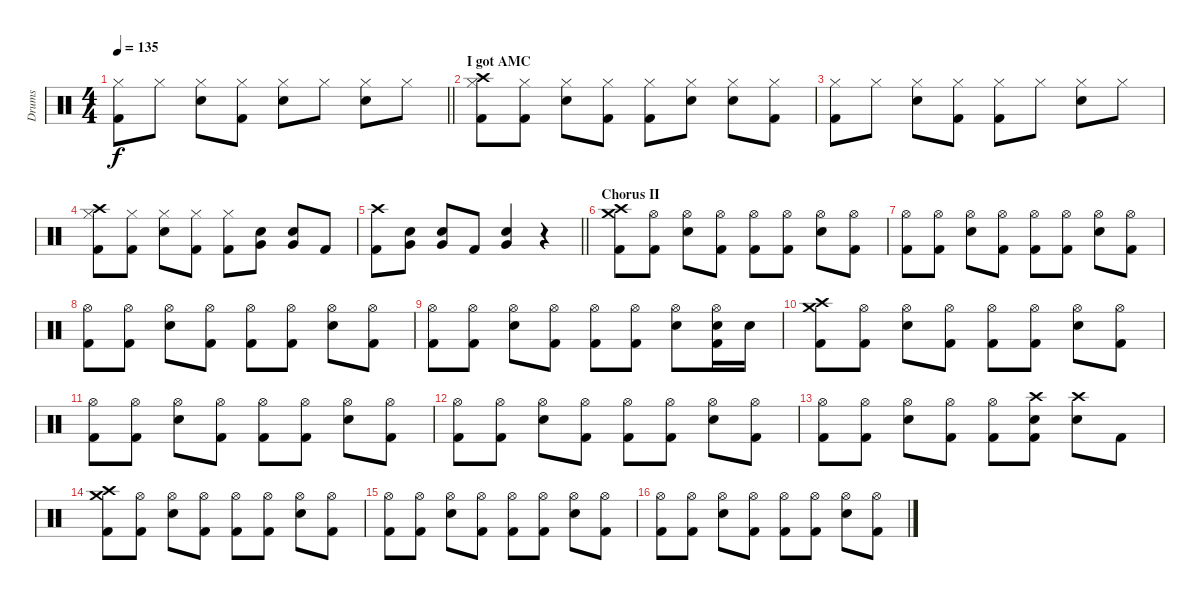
\track ("Drums" "Drums") {instrument percussion}
\staff {score}
\articulation defaults
\ts (4 4)
\tempo 135
\clef neutral
\barLineRight lightlight
\ks c
("Hi-Hat (closed)" "Kick (hit) 2").8{dy f volume 13} "Hi-Hat (closed)".8 ("Hi-Hat (closed)" "Electric Snare (hit)").8 ("Hi-Hat (closed)" "Kick (hit) 2").8 ("Hi-Hat (closed)" "Electric Snare (hit)").8 "Hi-Hat (closed)".8 ("Hi-Hat (closed)" "Electric Snare (hit)").8 "Hi-Hat (closed)".8 |
\section ("" "I got AMC")
("Crash high (hit)" "Hi-Hat (closed)" "Kick (hit) 2").8 ("Hi-Hat (closed)" "Kick (hit) 2").8 ("Hi-Hat (closed)" "Electric Snare (hit)").8 ("Hi-Hat (closed)" "Kick (hit) 2").8 ("Hi-Hat (closed)" "Kick (hit) 2").8 ("Hi-Hat (closed)" "Electric Snare (hit)").8 ("Hi-Hat (closed)" "Electric Snare (hit)").8 ("Hi-Hat (closed)" "Kick (hit) 2").8 |
("Hi-Hat (closed)" "Kick (hit) 2").8 "Hi-Hat (closed)".8 ("Hi-Hat (closed)" "Electric Snare (hit)").8 ("Hi-Hat (closed)" "Kick (hit) 2").8 ("Hi-Hat (closed)" "Kick (hit) 2").8 "Hi-Hat (closed)".8 ("Hi-Hat (closed)" "Electric Snare (hit)").8 "Hi-Hat (closed)".8 |
("Crash high (hit)" "Hi-Hat (closed)" "Kick (hit) 2").8 ("Hi-Hat (closed)" "Kick (hit) 2").8 ("Hi-Hat (closed)" "Electric Snare (hit)").8 ("Hi-Hat (closed)" "Kick (hit) 2").8 ("Hi-Hat (closed)" "Kick (hit) 2").8 ("Very Low Tom (hit)" "Electric Snare (hit)").8 ("Very Low Tom (hit)" "Electric Snare (hit)").8 "Kick (hit) 2".8 |
\barLineRight lightlight
("Crash high (hit)" "Kick (hit) 2").8 ("Very Low Tom (hit)" "Electric Snare (hit)").8 ("Very Low Tom (hit)" "Electric Snare (hit)").8 "Kick (hit) 2".8 ("Very Low Tom (hit)" "Electric Snare (hit)").4 r.4 |
\section ("" "Chorus II")
("Crash high (hit)" "Crash medium (hit)" "Kick (hit) 2").8 ("Hi-Hat (open)" "Kick (hit) 2").8 ("Hi-Hat (open)" "Electric Snare (hit)").8 ("Hi-Hat (open)" "Kick (hit) 2").8 ("Hi-Hat (open)" "Kick (hit) 2").8 ("Hi-Hat (open)" "Kick (hit) 2").8 ("Hi-Hat (open)" "Electric Snare (hit)").8 ("Hi-Hat (open)" "Kick (hit) 2").8 |
("Hi-Hat (open)" "Kick (hit) 2").8 ("Hi-Hat (open)" "Kick (hit) 2").8 ("Hi-Hat (open)" "Electric Snare (hit)").8 ("Hi-Hat (open)" "Kick (hit) 2").8 ("Hi-Hat (open)" "Kick (hit) 2").8 ("Hi-Hat (open)" "Kick (hit) 2").8 ("Hi-Hat (open)" "Electric Snare (hit)").8 ("Hi-Hat (open)" "Kick (hit) 2").8 |
("Hi-Hat (open)" "Kick (hit) 2").8 ("Hi-Hat (open)" "Kick (hit) 2").8 ("Hi-Hat (open)" "Electric Snare (hit)").8 ("Hi-Hat (open)" "Kick (hit) 2").8 ("Hi-Hat (open)" "Kick (hit) 2").8 ("Hi-Hat (open)" "Kick (hit) 2").8 ("Hi-Hat (open)" "Electric Snare (hit)").8 ("Hi-Hat (open)" "Kick (hit) 2").8 |
("Hi-Hat (open)" "Kick (hit) 2").8 ("Hi-Hat (open)" "Kick (hit) 2").8 ("Hi-Hat (open)" "Electric Snare (hit)").8 ("Hi-Hat (open)" "Kick (hit) 2").8 ("Hi-Hat (open)" "Kick (hit) 2").8 ("Hi-Hat (open)" "Kick (hit) 2").8 ("Hi-Hat (open)" "Electric Snare (hit)").8 ("Hi-Hat (open)" "Electric Snare (hit)" "Kick (hit) 2").16 "Electric Snare (hit)".16 |
("Crash high (hit)" "Crash medium (hit)" "Kick (hit) 2").8 ("Hi-Hat (open)" "Kick (hit) 2").8 ("Hi-Hat (open)" "Electric Snare (hit)").8 ("Hi-Hat (open)" "Kick (hit) 2").8 ("Hi-Hat (open)" "Kick (hit) 2").8 ("Hi-Hat (open)" "Kick (hit) 2").8 ("Hi-Hat (open)" "Electric Snare (hit)").8 ("Hi-Hat (open)" "Kick (hit) 2").8 |
("Hi-Hat (open)" "Kick (hit) 2").8 ("Hi-Hat (open)" "Kick (hit) 2").8 ("Hi-Hat (open)" "Electric Snare (hit)").8 ("Hi-Hat (open)" "Kick (hit) 2").8 ("Hi-Hat (open)" "Kick (hit) 2").8 ("Hi-Hat (open)" "Kick (hit) 2").8 ("Hi-Hat (open)" "Electric Snare (hit)").8 ("Hi-Hat (open)" "Kick (hit) 2").8 |
("Hi-Hat (open)" "Kick (hit) 2").8 ("Hi-Hat (open)" "Kick (hit) 2").8 ("Hi-Hat (open)" "Electric Snare (hit)").8 ("Hi-Hat (open)" "Kick (hit) 2").8 ("Hi-Hat (open)" "Kick (hit) 2").8 ("Hi-Hat (open)" "Kick (hit) 2").8 ("Hi-Hat (open)" "Electric Snare (hit)").8 ("Hi-Hat (open)" "Kick (hit) 2").8 |
("Hi-Hat (open)" "Kick (hit) 2").8 ("Hi-Hat (open)" "Kick (hit) 2").8 ("Hi-Hat (open)" "Electric Snare (hit)").8 ("Hi-Hat (open)" "Kick (hit) 2").8 ("Hi-Hat (open)" "Kick (hit) 2").8 ("Crash high (hit)" "Electric Snare (hit)" "Kick (hit) 2").8 ("Crash high (hit)" "Electric Snare (hit)").8 "Kick (hit) 2".8 |
("Crash high (hit)" "Crash medium (hit)" "Kick (hit) 2").8 ("Hi-Hat (open)" "Kick (hit) 2").8 ("Hi-Hat (open)" "Electric Snare (hit)").8 ("Hi-Hat (open)" "Kick (hit) 2").8 ("Hi-Hat (open)" "Kick (hit) 2").8 ("Hi-Hat (open)" "Kick (hit) 2").8 ("Hi-Hat (open)" "Electric Snare (hit)").8 ("Hi-Hat (open)" "Kick (hit) 2").8 |
("Hi-Hat (open)" "Kick (hit) 2").8 ("Hi-Hat (open)" "Kick (hit) 2").8 ("Hi-Hat (open)" "Electric Snare (hit)").8 ("Hi-Hat (open)" "Kick (hit) 2").8 ("Hi-Hat (open)" "Kick (hit) 2").8 ("Hi-Hat (open)" "Kick (hit) 2").8 ("Hi-Hat (open)" "Electric Snare (hit)").8 ("Hi-Hat (open)" "Kick (hit) 2").8 |
("Hi-Hat (open)" "Kick (hit) 2").8 ("Hi-Hat (open)" "Kick (hit) 2").8 ("Hi-Hat (open)" "Electric Snare (hit)").8 ("Hi-Hat (open)" "Kick (hit) 2").8 ("Hi-Hat (open)" "Kick (hit) 2").8 ("Hi-Hat (open)" "Kick (hit) 2").8 ("Hi-Hat (open)" "Electric Snare (hit)").8 ("Hi-Hat (open)" "Kick (hit) 2").8
